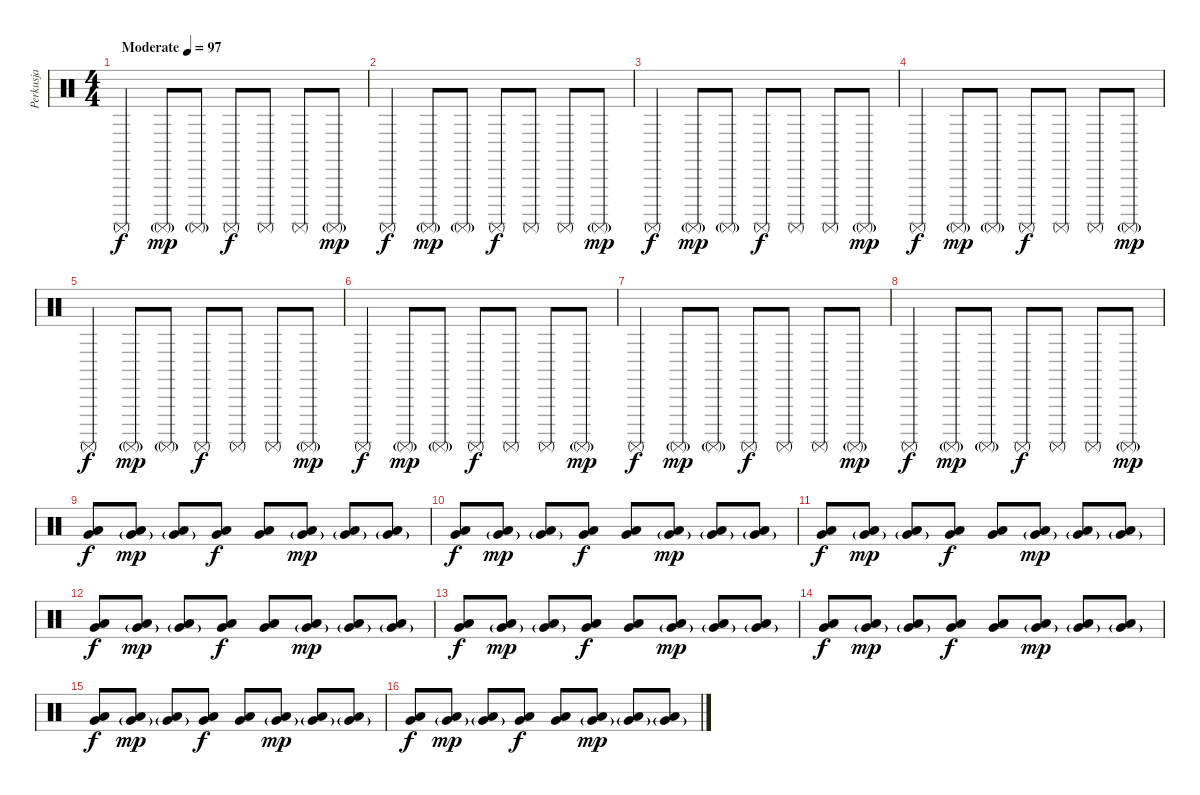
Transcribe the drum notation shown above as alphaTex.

\track ("Perkusja" "Perkusja") {instrument percussion}
\staff {score}
\articulation defaults
\ts (4 4)
\tempo (97 "Moderate")
\clef neutral
\ks c "Surdo (mute)".4{dy f} "Surdo (mute)"{g}.8{dy mp} "Surdo (mute)"{g}.8 "Surdo (mute)".8{dy f} "Surdo (mute)".8 "Surdo (mute)".8 "Surdo (mute)"{g}.8{dy mp}
|
"Surdo (mute)".4{dy f} "Surdo (mute)"{g}.8{dy mp} "Surdo (mute)"{g}.8 "Surdo (mute)".8{dy f} "Surdo (mute)".8 "Surdo (mute)".8 "Surdo (mute)"{g}.8{dy mp} |
"Surdo (mute)".4{dy f} "Surdo (mute)"{g}.8{dy mp} "Surdo (mute)"{g}.8 "Surdo (mute)".8{dy f} "Surdo (mute)".8 "Surdo (mute)".8 "Surdo (mute)"{g}.8{dy mp} |
"Surdo (mute)".4{dy f} "Surdo (mute)"{g}.8{dy mp} "Surdo (mute)"{g}.8 "Surdo (mute)".8{dy f} "Surdo (mute)".8 "Surdo (mute)".8 "Surdo (mute)"{g}.8{dy mp} |
"Surdo (mute)".4{dy f} "Surdo (mute)"{g}.8{dy mp} "Surdo (mute)"{g}.8 "Surdo (mute)".8{dy f} "Surdo (mute)".8 "Surdo (mute)".8 "Surdo (mute)"{g}.8{dy mp} |
"Surdo (mute)".4{dy f} "Surdo (mute)"{g}.8{dy mp} "Surdo (mute)"{g}.8 "Surdo (mute)".8{dy f} "Surdo (mute)".8 "Surdo (mute)".8 "Surdo (mute)"{g}.8{dy mp} |
"Surdo (mute)".4{dy f} "Surdo (mute)"{g}.8{dy mp} "Surdo (mute)"{g}.8 "Surdo (mute)".8{dy f} "Surdo (mute)".8 "Surdo (mute)".8 "Surdo (mute)"{g}.8{dy mp} |
"Surdo (mute)".4{dy f} "Surdo (mute)"{g}.8{dy mp} "Surdo (mute)"{g}.8 "Surdo (mute)".8{dy f} "Surdo (mute)".8 "Surdo (mute)".8 "Surdo (mute)"{g}.8{dy mp} |
("Low Tom (hit)" "Very Low Tom (hit)").8{dy f} ("Low Tom (hit)" "Very Low Tom (hit)"{g}).8{dy mp} ("Low Tom (hit)" "Very Low Tom (hit)"{g}).8 ("Low Tom (hit)" "Very Low Tom (hit)").8{dy f} ("Low Tom (hit)" "Very Low Tom (hit)").8 ("Low Tom (hit)" "Very Low Tom (hit)"{g}).8{dy mp} ("Low Tom (hit)" "Very Low Tom (hit)"{g}).8 ("Low Tom (hit)" "Very Low Tom (hit)"{g}).8 |
("Low Tom (hit)" "Very Low Tom (hit)").8{dy f} ("Low Tom (hit)" "Very Low Tom (hit)"{g}).8{dy mp} ("Low Tom (hit)" "Very Low Tom (hit)"{g}).8 ("Low Tom (hit)" "Very Low Tom (hit)").8{dy f} ("Low Tom (hit)" "Very Low Tom (hit)").8 ("Low Tom (hit)" "Very Low Tom (hit)"{g}).8{dy mp} ("Low Tom (hit)" "Very Low Tom (hit)"{g}).8 ("Low Tom (hit)" "Very Low Tom (hit)"{g}).8 |
("Low Tom (hit)" "Very Low Tom (hit)").8{dy f} ("Low Tom (hit)" "Very Low Tom (hit)"{g}).8{dy mp} ("Low Tom (hit)" "Very Low Tom (hit)"{g}).8 ("Low Tom (hit)" "Very Low Tom (hit)").8{dy f} ("Low Tom (hit)" "Very Low Tom (hit)").8 ("Low Tom (hit)" "Very Low Tom (hit)"{g}).8{dy mp} ("Low Tom (hit)" "Very Low Tom (hit)"{g}).8 ("Low Tom (hit)" "Very Low Tom (hit)"{g}).8 |
("Low Tom (hit)" "Very Low Tom (hit)").8{dy f} ("Low Tom (hit)" "Very Low Tom (hit)"{g}).8{dy mp} ("Low Tom (hit)" "Very Low Tom (hit)"{g}).8 ("Low Tom (hit)" "Very Low Tom (hit)").8{dy f} ("Low Tom (hit)" "Very Low Tom (hit)").8 ("Low Tom (hit)" "Very Low Tom (hit)"{g}).8{dy mp} ("Low Tom (hit)" "Very Low Tom (hit)"{g}).8 ("Low Tom (hit)" "Very Low Tom (hit)"{g}).8 |
("Low Tom (hit)" "Very Low Tom (hit)").8{dy f} ("Low Tom (hit)" "Very Low Tom (hit)"{g}).8{dy mp} ("Low Tom (hit)" "Very Low Tom (hit)"{g}).8 ("Low Tom (hit)" "Very Low Tom (hit)").8{dy f} ("Low Tom (hit)" "Very Low Tom (hit)").8 ("Low Tom (hit)" "Very Low Tom (hit)"{g}).8{dy mp} ("Low Tom (hit)" "Very Low Tom (hit)"{g}).8 ("Low Tom (hit)" "Very Low Tom (hit)"{g}).8 |
("Low Tom (hit)" "Very Low Tom (hit)").8{dy f} ("Low Tom (hit)" "Very Low Tom (hit)"{g}).8{dy mp} ("Low Tom (hit)" "Very Low Tom (hit)"{g}).8 ("Low Tom (hit)" "Very Low Tom (hit)").8{dy f} ("Low Tom (hit)" "Very Low Tom (hit)").8 ("Low Tom (hit)" "Very Low Tom (hit)"{g}).8{dy mp} ("Low Tom (hit)" "Very Low Tom (hit)"{g}).8 ("Low Tom (hit)" "Very Low Tom (hit)"{g}).8 |
("Low Tom (hit)" "Very Low Tom (hit)").8{dy f} ("Low Tom (hit)" "Very Low Tom (hit)"{g}).8{dy mp} ("Low Tom (hit)" "Very Low Tom (hit)"{g}).8 ("Low Tom (hit)" "Very Low Tom (hit)").8{dy f} ("Low Tom (hit)" "Very Low Tom (hit)").8 ("Low Tom (hit)" "Very Low Tom (hit)"{g}).8{dy mp} ("Low Tom (hit)" "Very Low Tom (hit)"{g}).8 ("Low Tom (hit)" "Very Low Tom (hit)"{g}).8 |
("Low Tom (hit)" "Very Low Tom (hit)").8{dy f} ("Low Tom (hit)" "Very Low Tom (hit)"{g}).8{dy mp} ("Low Tom (hit)" "Very Low Tom (hit)"{g}).8 ("Low Tom (hit)" "Very Low Tom (hit)").8{dy f} ("Low Tom (hit)" "Very Low Tom (hit)").8 ("Low Tom (hit)" "Very Low Tom (hit)"{g}).8{dy mp} ("Low Tom (hit)" "Very Low Tom (hit)"{g}).8 ("Low Tom (hit)" "Very Low Tom (hit)"{g}).8
